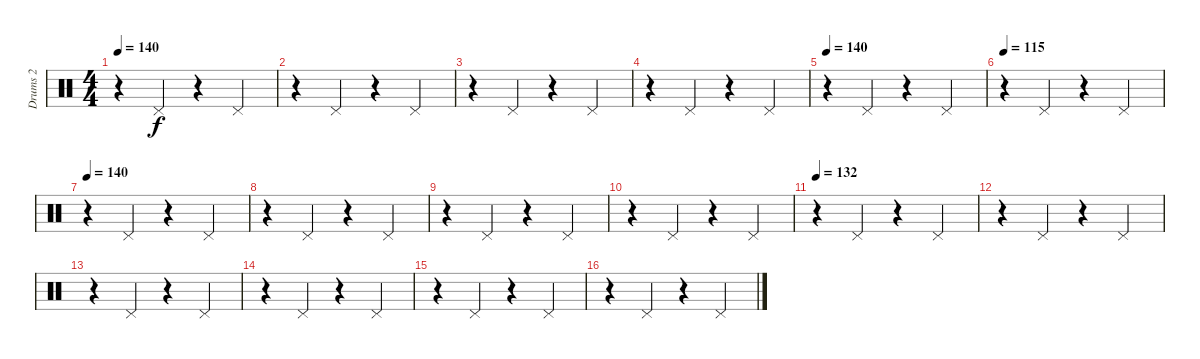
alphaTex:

\track ("Drums 2" "Drums 2") {instrument percussion}
\staff {score}
\articulation defaults
\ts (4 4)
\tempo 140
\clef neutral
\ks c
r.4{dy f} "Pedal Hi-Hat (hit)".4 r.4 "Pedal Hi-Hat (hit)".4 |
r.4 "Pedal Hi-Hat (hit)".4 r.4 "Pedal Hi-Hat (hit)".4 |
r.4 "Pedal Hi-Hat (hit)".4 r.4 "Pedal Hi-Hat (hit)".4 |
r.4 "Pedal Hi-Hat (hit)".4 r.4 "Pedal Hi-Hat (hit)".4 |
\tempo 140
r.4 "Pedal Hi-Hat (hit)".4 r.4 "Pedal Hi-Hat (hit)".4 |
\tempo 115
r.4 "Pedal Hi-Hat (hit)".4 r.4 "Pedal Hi-Hat (hit)".4 |
\tempo 140
r.4 "Pedal Hi-Hat (hit)".4 r.4 "Pedal Hi-Hat (hit)".4 |
r.4 "Pedal Hi-Hat (hit)".4 r.4 "Pedal Hi-Hat (hit)".4 |
r.4 "Pedal Hi-Hat (hit)".4 r.4 "Pedal Hi-Hat (hit)".4 |
r.4 "Pedal Hi-Hat (hit)".4 r.4 "Pedal Hi-Hat (hit)".4 |
\tempo 132
r.4 "Pedal Hi-Hat (hit)".4 r.4 "Pedal Hi-Hat (hit)".4 |
r.4 "Pedal Hi-Hat (hit)".4 r.4 "Pedal Hi-Hat (hit)".4 |
r.4 "Pedal Hi-Hat (hit)".4 r.4 "Pedal Hi-Hat (hit)".4 |
r.4 "Pedal Hi-Hat (hit)".4 r.4 "Pedal Hi-Hat (hit)".4 |
r.4 "Pedal Hi-Hat (hit)".4 r.4 "Pedal Hi-Hat (hit)".4 |
r.4 "Pedal Hi-Hat (hit)".4 r.4 "Pedal Hi-Hat (hit)".4
